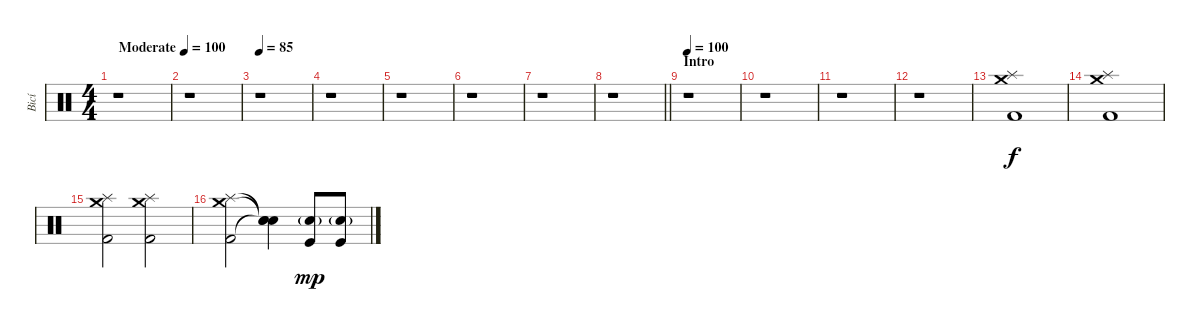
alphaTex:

\track ("Bicí" "Bicí") {instrument percussion}
\staff {score}
\articulation defaults
\ts (4 4)
\tempo (100 "Moderate")
\clef neutral
\ks c
r.1{dy f} |
r.1 |
\tempo 85
r.1 |
r.1 |
r.1 |
r.1 |
r.1 |
\barLineRight lightlight
r.1 |
\section ("" "Intro")
\tempo 100
r.1 |
r.1 |
r.1 |
r.1 |
("Splash (hit)" "Crash medium (hit)" "Kick (hit) 2").1 |
("Splash (hit)" "Crash medium (hit)" "Kick (hit) 2").1 |
("Splash (hit)" "Crash medium (hit)" "Kick (hit) 2").2 ("Splash (hit)" "Crash medium (hit)" "Kick (hit) 2").2 |
("Splash (hit)" "Crash medium (hit)" "Kick (hit) 2").2 ("Snare (hit)"{t} "Snare (hit)"{t} "Snare (hit)"{t}).4 ("Kick (hit)" "Electric Snare (hit)"{g}).8{dy mp} ("Kick (hit)" "Electric Snare (hit)"{g}).8
